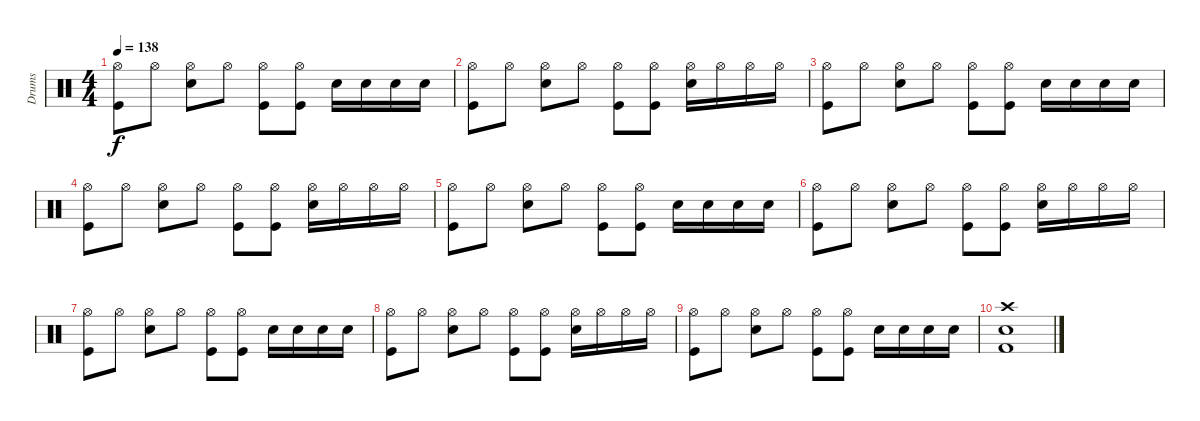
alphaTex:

\track ("Drums" "Drums") {instrument percussion}
\staff {score}
\articulation defaults
\ts (4 4)
\tempo 138
\clef neutral
\ks c
("Hi-Hat (open)" "Kick (hit)").8{dy f} "Hi-Hat (open)".8 ("Hi-Hat (open)" "Snare (hit) 2").8 "Hi-Hat (open)".8 ("Hi-Hat (open)" "Kick (hit)").8 ("Hi-Hat (open)" "Kick (hit)").8 "Snare (hit) 2".16 "Snare (hit) 2".16 "Snare (hit) 2".16 "Snare (hit) 2".16 |
("Hi-Hat (open)" "Kick (hit)").8 "Hi-Hat (open)".8 ("Hi-Hat (open)" "Snare (hit) 2").8 "Hi-Hat (open)".8 ("Hi-Hat (open)" "Kick (hit)").8 ("Hi-Hat (open)" "Kick (hit)").8 ("Hi-Hat (open)" "Snare (hit) 2").16 "Hi-Hat (open)".16 "Hi-Hat (open)".16 "Hi-Hat (open)".16 |
("Hi-Hat (open)" "Kick (hit)").8 "Hi-Hat (open)".8 ("Hi-Hat (open)" "Snare (hit) 2").8 "Hi-Hat (open)".8 ("Hi-Hat (open)" "Kick (hit)").8 ("Hi-Hat (open)" "Kick (hit)").8 "Snare (hit) 2".16 "Snare (hit) 2".16 "Snare (hit) 2".16 "Snare (hit) 2".16 |
("Hi-Hat (open)" "Kick (hit)").8 "Hi-Hat (open)".8 ("Hi-Hat (open)" "Snare (hit) 2").8 "Hi-Hat (open)".8 ("Hi-Hat (open)" "Kick (hit)").8 ("Hi-Hat (open)" "Kick (hit)").8 ("Hi-Hat (open)" "Snare (hit) 2").16 "Hi-Hat (open)".16 "Hi-Hat (open)".16 "Hi-Hat (open)".16 |
("Hi-Hat (open)" "Kick (hit)").8 "Hi-Hat (open)".8 ("Hi-Hat (open)" "Snare (hit) 2").8 "Hi-Hat (open)".8 ("Hi-Hat (open)" "Kick (hit)").8 ("Hi-Hat (open)" "Kick (hit)").8 "Snare (hit) 2".16 "Snare (hit) 2".16 "Snare (hit) 2".16 "Snare (hit) 2".16 |
("Hi-Hat (open)" "Kick (hit)").8 "Hi-Hat (open)".8 ("Hi-Hat (open)" "Snare (hit) 2").8 "Hi-Hat (open)".8 ("Hi-Hat (open)" "Kick (hit)").8 ("Hi-Hat (open)" "Kick (hit)").8 ("Hi-Hat (open)" "Snare (hit) 2").16 "Hi-Hat (open)".16 "Hi-Hat (open)".16 "Hi-Hat (open)".16 |
("Hi-Hat (open)" "Kick (hit)").8 "Hi-Hat (open)".8 ("Hi-Hat (open)" "Snare (hit) 2").8 "Hi-Hat (open)".8 ("Hi-Hat (open)" "Kick (hit)").8 ("Hi-Hat (open)" "Kick (hit)").8 "Snare (hit) 2".16 "Snare (hit) 2".16 "Snare (hit) 2".16 "Snare (hit) 2".16 |
("Hi-Hat (open)" "Kick (hit)").8 "Hi-Hat (open)".8 ("Hi-Hat (open)" "Snare (hit) 2").8 "Hi-Hat (open)".8 ("Hi-Hat (open)" "Kick (hit)").8 ("Hi-Hat (open)" "Kick (hit)").8 ("Hi-Hat (open)" "Snare (hit) 2").16 "Hi-Hat (open)".16 "Hi-Hat (open)".16 "Hi-Hat (open)".16 |
("Hi-Hat (open)" "Kick (hit)").8 "Hi-Hat (open)".8 ("Hi-Hat (open)" "Snare (hit) 2").8 "Hi-Hat (open)".8 ("Hi-Hat (open)" "Kick (hit)").8 ("Hi-Hat (open)" "Kick (hit)").8 "Snare (hit) 2".16 "Snare (hit) 2".16 "Snare (hit) 2".16 "Snare (hit) 2".16 |
("Crash high (hit)" "Kick (hit) 2" "Snare (hit) 2").1
